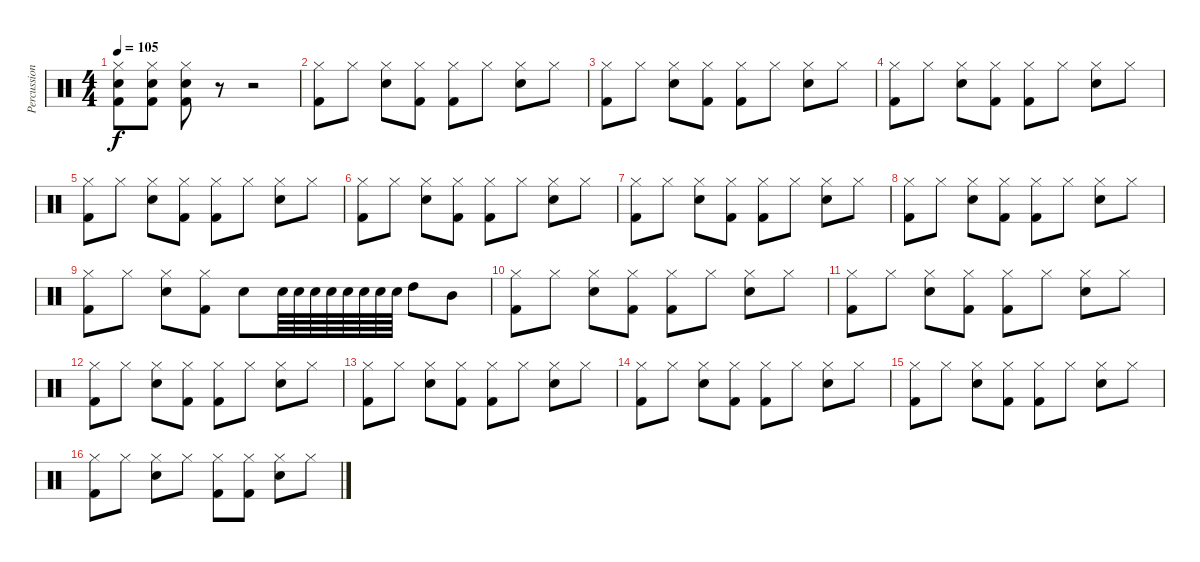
\track ("Percussion" "Percussion") {instrument percussion}
\staff {score}
\articulation defaults
\ts (4 4)
\tempo 105
\clef neutral
\ks c
("Hi-Hat (closed)" "Kick (hit) 2" "Snare (hit) 2").8{dy f} ("Hi-Hat (closed)" "Kick (hit) 2" "Snare (hit) 2").8 ("Hi-Hat (closed)" "Snare (hit) 2" "Kick (hit) 2").8 r.8 r.2 |
("Hi-Hat (closed)" "Kick (hit) 2").8 "Hi-Hat (closed)".8 ("Hi-Hat (closed)" "Snare (hit) 2").8 ("Hi-Hat (closed)" "Kick (hit) 2").8 ("Hi-Hat (closed)" "Kick (hit) 2").8 "Hi-Hat (closed)".8 ("Hi-Hat (closed)" "Snare (hit) 2").8 "Hi-Hat (closed)".8 |
("Hi-Hat (closed)" "Kick (hit) 2").8 "Hi-Hat (closed)".8 ("Hi-Hat (closed)" "Snare (hit) 2").8 ("Hi-Hat (closed)" "Kick (hit) 2").8 ("Hi-Hat (closed)" "Kick (hit) 2").8 "Hi-Hat (closed)".8 ("Hi-Hat (closed)" "Snare (hit) 2").8 "Hi-Hat (closed)".8 |
("Hi-Hat (closed)" "Kick (hit) 2").8 "Hi-Hat (closed)".8 ("Hi-Hat (closed)" "Snare (hit) 2").8 ("Hi-Hat (closed)" "Kick (hit) 2").8 ("Hi-Hat (closed)" "Kick (hit) 2").8 "Hi-Hat (closed)".8 ("Hi-Hat (closed)" "Snare (hit) 2").8 "Hi-Hat (closed)".8 |
("Hi-Hat (closed)" "Kick (hit) 2").8 "Hi-Hat (closed)".8 ("Hi-Hat (closed)" "Snare (hit) 2").8 ("Hi-Hat (closed)" "Kick (hit) 2").8 ("Hi-Hat (closed)" "Kick (hit) 2").8 "Hi-Hat (closed)".8 ("Hi-Hat (closed)" "Snare (hit) 2").8 "Hi-Hat (closed)".8 |
("Hi-Hat (closed)" "Kick (hit) 2").8 "Hi-Hat (closed)".8 ("Hi-Hat (closed)" "Snare (hit) 2").8 ("Hi-Hat (closed)" "Kick (hit) 2").8 ("Hi-Hat (closed)" "Kick (hit) 2").8 "Hi-Hat (closed)".8 ("Hi-Hat (closed)" "Snare (hit) 2").8 "Hi-Hat (closed)".8 |
("Hi-Hat (closed)" "Kick (hit) 2").8 "Hi-Hat (closed)".8 ("Hi-Hat (closed)" "Snare (hit) 2").8 ("Hi-Hat (closed)" "Kick (hit) 2").8 ("Hi-Hat (closed)" "Kick (hit) 2").8 "Hi-Hat (closed)".8 ("Hi-Hat (closed)" "Snare (hit) 2").8 "Hi-Hat (closed)".8 |
("Hi-Hat (closed)" "Kick (hit) 2").8 "Hi-Hat (closed)".8 ("Hi-Hat (closed)" "Snare (hit) 2").8 ("Hi-Hat (closed)" "Kick (hit) 2").8 ("Hi-Hat (closed)" "Kick (hit) 2").8 "Hi-Hat (closed)".8 ("Hi-Hat (closed)" "Snare (hit) 2").8 "Hi-Hat (closed)".8 |
("Hi-Hat (closed)" "Kick (hit) 2").8 "Hi-Hat (closed)".8 ("Hi-Hat (closed)" "Snare (hit) 2").8 ("Hi-Hat (closed)" "Kick (hit) 2").8 "Snare (hit) 2".8 "Snare (hit) 2".64 "Snare (hit) 2".64 "Snare (hit) 2".64 "Snare (hit) 2".64 "Snare (hit) 2".64 "Snare (hit) 2".64 "Snare (hit) 2".64 "Snare (hit) 2".64 "High Tom (hit)".8 "Mid Tom (hit)".8 |
("Hi-Hat (closed)" "Kick (hit) 2").8 "Hi-Hat (closed)".8 ("Hi-Hat (closed)" "Snare (hit) 2").8 ("Hi-Hat (closed)" "Kick (hit) 2").8 ("Hi-Hat (closed)" "Kick (hit) 2").8 "Hi-Hat (closed)".8 ("Hi-Hat (closed)" "Snare (hit) 2").8 "Hi-Hat (closed)".8 |
("Hi-Hat (closed)" "Kick (hit) 2").8 "Hi-Hat (closed)".8 ("Hi-Hat (closed)" "Snare (hit) 2").8 ("Hi-Hat (closed)" "Kick (hit) 2").8 ("Hi-Hat (closed)" "Kick (hit) 2").8 "Hi-Hat (closed)".8 ("Hi-Hat (closed)" "Snare (hit) 2").8 "Hi-Hat (closed)".8 |
("Hi-Hat (closed)" "Kick (hit) 2").8 "Hi-Hat (closed)".8 ("Hi-Hat (closed)" "Snare (hit) 2").8 ("Hi-Hat (closed)" "Kick (hit) 2").8 ("Hi-Hat (closed)" "Kick (hit) 2").8 "Hi-Hat (closed)".8 ("Hi-Hat (closed)" "Snare (hit) 2").8 "Hi-Hat (closed)".8 |
("Hi-Hat (closed)" "Kick (hit) 2").8 "Hi-Hat (closed)".8 ("Hi-Hat (closed)" "Snare (hit) 2").8 ("Hi-Hat (closed)" "Kick (hit) 2").8 ("Hi-Hat (closed)" "Kick (hit) 2").8 "Hi-Hat (closed)".8 ("Hi-Hat (closed)" "Snare (hit) 2").8 "Hi-Hat (closed)".8 |
("Hi-Hat (closed)" "Kick (hit) 2").8 "Hi-Hat (closed)".8 ("Hi-Hat (closed)" "Snare (hit) 2").8 ("Hi-Hat (closed)" "Kick (hit) 2").8 ("Hi-Hat (closed)" "Kick (hit) 2").8 "Hi-Hat (closed)".8 ("Hi-Hat (closed)" "Snare (hit) 2").8 "Hi-Hat (closed)".8 |
("Hi-Hat (closed)" "Kick (hit) 2").8 "Hi-Hat (closed)".8 ("Hi-Hat (closed)" "Snare (hit) 2").8 ("Hi-Hat (closed)" "Kick (hit) 2").8 ("Hi-Hat (closed)" "Kick (hit) 2").8 "Hi-Hat (closed)".8 ("Hi-Hat (closed)" "Snare (hit) 2").8 "Hi-Hat (closed)".8 |
("Hi-Hat (closed)" "Kick (hit) 2").8 "Hi-Hat (closed)".8 ("Hi-Hat (closed)" "Snare (hit) 2").8 "Hi-Hat (closed)".8 ("Hi-Hat (closed)" "Kick (hit) 2").8 ("Hi-Hat (closed)" "Kick (hit) 2").8 ("Hi-Hat (closed)" "Snare (hit) 2").8 "Hi-Hat (closed)".8
